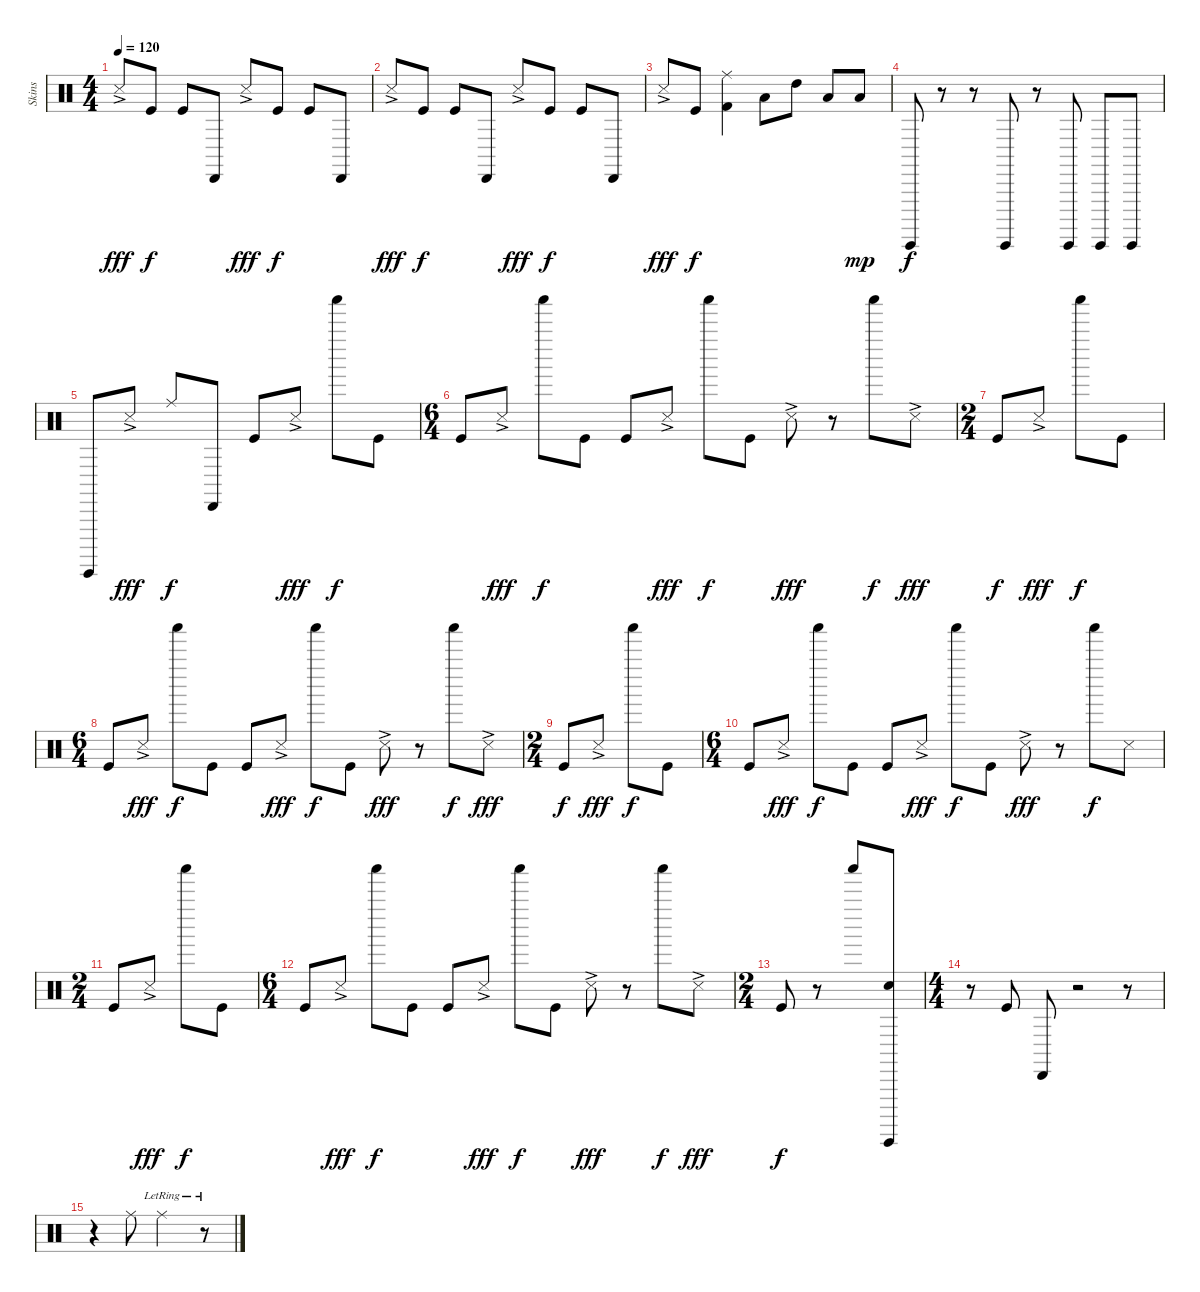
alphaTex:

\track ("Skins" "Skins") {instrument percussion}
\staff {score}
\articulation defaults
\ts (4 4)
\tempo 120
\clef neutral
\ks c "Snare (side stick) 3"{ac}.8{dy fff} "Kick (hit)".8{dy f} "Kick (hit)".8 "Cabasa (hit)".8 "Snare (side stick) 3"{ac}.8{dy fff} "Kick (hit)".8{dy f} "Kick (hit)".8 "Cabasa (hit)".8
|
"Snare (side stick) 3"{ac}.8{dy fff} "Kick (hit)".8{dy f} "Kick (hit)".8 "Cabasa (hit)".8 "Snare (side stick) 3"{ac}.8{dy fff} "Kick (hit)".8{dy f} "Kick (hit)".8 "Cabasa (hit)".8 |
"Snare (side stick) 3"{ac}.8{dy fff} "Kick (hit)".8{dy f} ("Ride (middle)" "Kick (hit) 2").4 "Low Floor Tom (hit)".8 "High Tom (hit)".8 "Low Floor Tom (hit)".8 "Low Tom (hit)".8{dy mp} |
"Guiro (hit)".8{dy f} r.8 r.8 "Guiro (hit)".8 r.8 "Guiro (hit)".8 "Guiro (hit)".8 "Guiro (hit)".8 |
"Guiro (hit)".8 "Snare (side stick) 3"{ac}.8{dy fff} "Ride (middle)".8{dy f} "Cabasa (hit)".8 "Kick (hit)".8 "Snare (side stick) 3"{ac}.8{dy fff} "Shaker (hit)".8{dy f} "Kick (hit)".8 |
\ts (6 4)
"Kick (hit)".8 "Snare (side stick) 3"{ac}.8{dy fff} "Shaker (hit)".8{dy f} "Kick (hit)".8 "Kick (hit)".8 "Snare (side stick) 3"{ac}.8{dy fff} "Shaker (hit)".8{dy f} "Kick (hit)".8 "Snare (side stick) 3"{ac}.8{dy fff} r.8 "Shaker (hit)".8{dy f} "Snare (side stick) 3"{ac}.8{dy fff} |
\ts (2 4)
"Kick (hit)".8{dy f} "Snare (side stick) 3"{ac}.8{dy fff} "Shaker (hit)".8{dy f} "Kick (hit)".8 |
\ts (6 4)
"Kick (hit)".8 "Snare (side stick) 3"{ac}.8{dy fff} "Shaker (hit)".8{dy f} "Kick (hit)".8 "Kick (hit)".8 "Snare (side stick) 3"{ac}.8{dy fff} "Shaker (hit)".8{dy f} "Kick (hit)".8 "Snare (side stick) 3"{ac}.8{dy fff} r.8 "Shaker (hit)".8{dy f} "Snare (side stick) 3"{ac}.8{dy fff} |
\ts (2 4)
"Kick (hit)".8{dy f} "Snare (side stick) 3"{ac}.8{dy fff} "Shaker (hit)".8{dy f} "Kick (hit)".8 |
\ts (6 4)
"Kick (hit)".8 "Snare (side stick) 3"{ac}.8{dy fff} "Shaker (hit)".8{dy f} "Kick (hit)".8 "Kick (hit)".8 "Snare (side stick) 3"{ac}.8{dy fff} "Shaker (hit)".8{dy f} "Kick (hit)".8 "Snare (side stick) 3"{ac}.8{dy fff} r.8 "Shaker (hit)".8{dy f} "Snare (side stick) 3".8 |
\ts (2 4)
"Kick (hit)".8 "Snare (side stick) 3"{ac}.8{dy fff} "Shaker (hit)".8{dy f} "Kick (hit)".8 |
\ts (6 4)
"Kick (hit)".8 "Snare (side stick) 3"{ac}.8{dy fff} "Shaker (hit)".8{dy f} "Kick (hit)".8 "Kick (hit)".8 "Snare (side stick) 3"{ac}.8{dy fff} "Shaker (hit)".8{dy f} "Kick (hit)".8 "Snare (side stick) 3"{ac}.8{dy fff} r.8 "Shaker (hit)".8{dy f} "Snare (side stick) 3"{ac}.8{dy fff} |
\ts (2 4)
"Kick (hit)".8{dy f} r.8 "Shaker (hit)".8 ("Guiro (hit)" "Electric Snare (hit)").8 |
\ts (4 4)
r.8 "Kick (hit)".8 "Cabasa (hit)".8 r.2 r.8 |
r.4 "Ride (middle)".8 "Ride (middle)"{lr}.2 r.8
